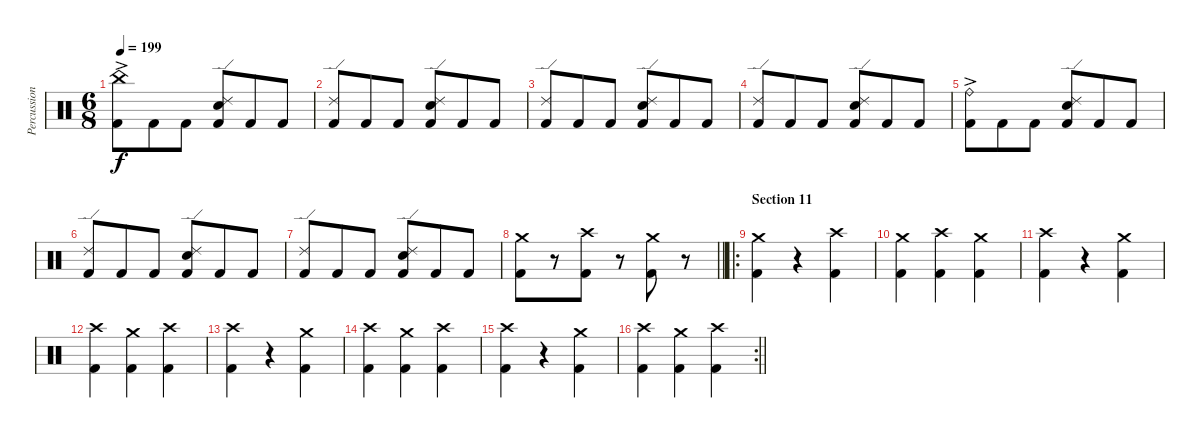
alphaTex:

\track ("Percussion" "Percussion") {instrument percussion}
\staff {score}
\articulation defaults
\ts (6 8)
\tempo 199
\clef neutral
\ks c
("China (hit)"{ac} "Kick (hit) 2").8{dy f} "Kick (hit) 2".8 "Kick (hit) 2".8 ("Ride (edge) 2" "Electric Snare (hit)" "Kick (hit) 2").8 "Kick (hit) 2".8 "Kick (hit) 2".8 |
("Ride (edge) 2" "Kick (hit) 2").8 "Kick (hit) 2".8 "Kick (hit) 2".8 ("Ride (edge) 2" "Electric Snare (hit)" "Kick (hit) 2").8 "Kick (hit) 2".8 "Kick (hit) 2".8 |
("Ride (edge) 2" "Kick (hit) 2").8 "Kick (hit) 2".8 "Kick (hit) 2".8 ("Ride (edge) 2" "Electric Snare (hit)" "Kick (hit) 2").8 "Kick (hit) 2".8 "Kick (hit) 2".8 |
("Ride (edge) 2" "Kick (hit) 2").8 "Kick (hit) 2".8 "Kick (hit) 2".8 ("Ride (edge) 2" "Electric Snare (hit)" "Kick (hit) 2").8 "Kick (hit) 2".8 "Kick (hit) 2".8 |
("Ride (bell)"{ac} "Kick (hit) 2").8 "Kick (hit) 2".8 "Kick (hit) 2".8 ("Ride (edge) 2" "Electric Snare (hit)" "Kick (hit) 2").8 "Kick (hit) 2".8 "Kick (hit) 2".8 |
("Ride (edge) 2" "Kick (hit) 2").8 "Kick (hit) 2".8 "Kick (hit) 2".8 ("Ride (edge) 2" "Electric Snare (hit)" "Kick (hit) 2").8 "Kick (hit) 2".8 "Kick (hit) 2".8 |
("Ride (edge) 2" "Kick (hit) 2").8 "Kick (hit) 2".8 "Kick (hit) 2".8 ("Ride (edge) 2" "Electric Snare (hit)" "Kick (hit) 2").8 "Kick (hit) 2".8 "Kick (hit) 2".8 |
\barLineRight lightlight
("Crash medium (hit)" "Kick (hit) 2").8 r.8 ("Crash high (hit)" "Kick (hit) 2").8 r.8 ("Crash medium (hit)" "Kick (hit) 2").8 r.8 |
\ro
\section ("" "Section 11")
("Crash medium (hit)" "Kick (hit) 2").4 r.4 ("Crash high (hit)" "Kick (hit) 2").4 |
("Crash medium (hit)" "Kick (hit) 2").4 ("Crash high (hit)" "Kick (hit) 2").4 ("Crash medium (hit)" "Kick (hit) 2").4 |
("Crash high (hit)" "Kick (hit) 2").4 r.4 ("Crash medium (hit)" "Kick (hit) 2").4 |
("Crash high (hit)" "Kick (hit) 2").4 ("Crash medium (hit)" "Kick (hit) 2").4 ("Crash high (hit)" "Kick (hit) 2").4 |
("Crash high (hit)" "Kick (hit) 2").4 r.4 ("Crash medium (hit)" "Kick (hit) 2").4 |
("Crash high (hit)" "Kick (hit) 2").4 ("Crash medium (hit)" "Kick (hit) 2").4 ("Crash high (hit)" "Kick (hit) 2").4 |
("Crash high (hit)" "Kick (hit) 2").4 r.4 ("Crash medium (hit)" "Kick (hit) 2").4 |
\rc 2
\barLineRight lightlight
("Crash high (hit)" "Kick (hit) 2").4 ("Crash medium (hit)" "Kick (hit) 2").4 ("Crash high (hit)" "Kick (hit) 2").4
